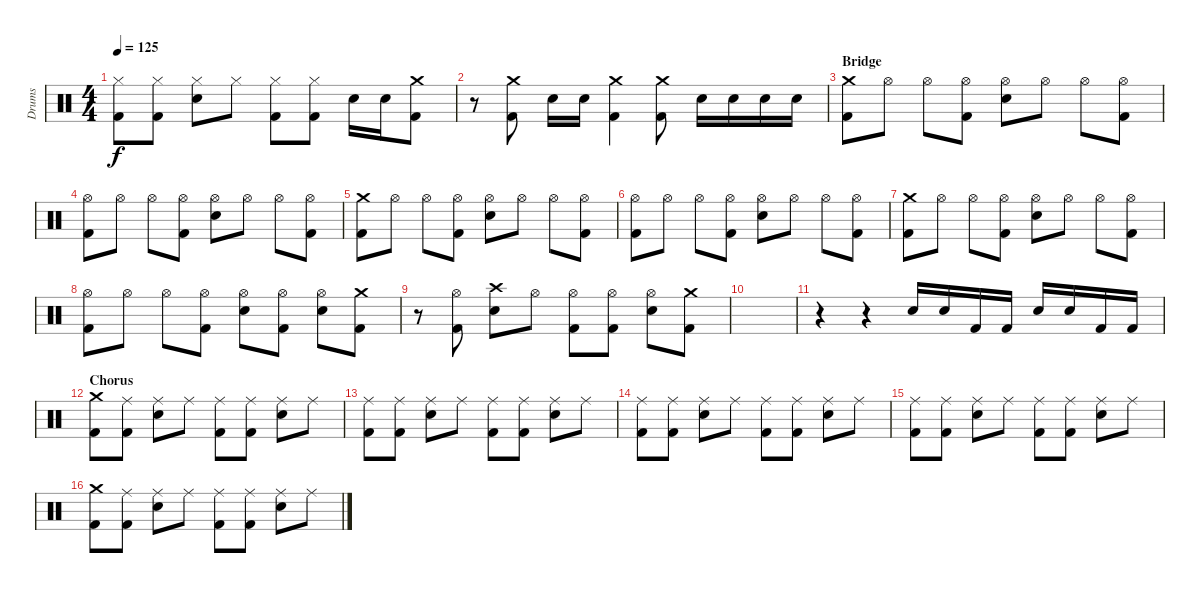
\track ("Drums" "Drums") {instrument percussion}
\staff {score}
\articulation defaults
\ts (4 4)
\tempo 125
\clef neutral
\ks c
("Hi-Hat (closed)" "Kick (hit) 2").8{dy f} ("Hi-Hat (closed)" "Kick (hit) 2").8 ("Hi-Hat (closed)" "Snare (hit) 2").8 "Hi-Hat (closed)".8 ("Hi-Hat (closed)" "Kick (hit) 2").8 ("Hi-Hat (closed)" "Kick (hit) 2").8 "Snare (hit) 2".16 "Snare (hit) 2".16 ("Crash medium (hit)" "Kick (hit) 2").8 |
r.8 ("Crash medium (hit)" "Kick (hit) 2").8 "Snare (hit) 2".16 "Snare (hit) 2".16 ("Crash medium (hit)" "Kick (hit) 2").4 ("Crash medium (hit)" "Kick (hit) 2").8 "Snare (hit) 2".16 "Snare (hit) 2".16 "Snare (hit) 2".16 "Snare (hit) 2".16 |
\section ("" "Bridge")
("Crash medium (hit)" "Kick (hit) 2").8 "Hi-Hat (open)".8 "Hi-Hat (open)".8 ("Hi-Hat (open)" "Kick (hit) 2").8 ("Hi-Hat (open)" "Snare (hit) 2").8 "Hi-Hat (open)".8 "Hi-Hat (open)".8 ("Hi-Hat (open)" "Kick (hit) 2").8 |
("Hi-Hat (open)" "Kick (hit) 2").8 "Hi-Hat (open)".8 "Hi-Hat (open)".8 ("Hi-Hat (open)" "Kick (hit) 2").8 ("Hi-Hat (open)" "Snare (hit) 2").8 "Hi-Hat (open)".8 "Hi-Hat (open)".8 ("Hi-Hat (open)" "Kick (hit) 2").8 |
("Crash medium (hit)" "Kick (hit) 2").8 "Hi-Hat (open)".8 "Hi-Hat (open)".8 ("Hi-Hat (open)" "Kick (hit) 2").8 ("Hi-Hat (open)" "Snare (hit) 2").8 "Hi-Hat (open)".8 "Hi-Hat (open)".8 ("Hi-Hat (open)" "Kick (hit) 2").8 |
("Hi-Hat (open)" "Kick (hit) 2").8 "Hi-Hat (open)".8 "Hi-Hat (open)".8 ("Hi-Hat (open)" "Kick (hit) 2").8 ("Hi-Hat (open)" "Snare (hit) 2").8 "Hi-Hat (open)".8 "Hi-Hat (open)".8 ("Hi-Hat (open)" "Kick (hit) 2").8 |
("Crash medium (hit)" "Kick (hit) 2").8 "Hi-Hat (open)".8 "Hi-Hat (open)".8 ("Hi-Hat (open)" "Kick (hit) 2").8 ("Hi-Hat (open)" "Snare (hit) 2").8 "Hi-Hat (open)".8 "Hi-Hat (open)".8 ("Hi-Hat (open)" "Kick (hit) 2").8 |
("Hi-Hat (open)" "Kick (hit) 2").8 "Hi-Hat (open)".8 "Hi-Hat (open)".8 ("Hi-Hat (open)" "Kick (hit) 2").8 ("Hi-Hat (open)" "Snare (hit) 2").8 ("Hi-Hat (open)" "Kick (hit) 2").8 ("Hi-Hat (open)" "Snare (hit) 2").8 ("Crash medium (hit)" "Kick (hit) 2").8 |
r.8 ("Hi-Hat (open)" "Kick (hit) 2").8 ("Crash high (hit)" "Snare (hit) 2").8 "Hi-Hat (open)".8 ("Hi-Hat (open)" "Kick (hit) 2").8 ("Hi-Hat (open)" "Kick (hit) 2").8 ("Hi-Hat (open)" "Snare (hit) 2").8 ("Crash medium (hit)" "Kick (hit) 2").8 |
|
r.4 r.4 "Snare (hit) 2".16 "Snare (hit) 2".16 "Kick (hit) 2".16 "Kick (hit) 2".16 "Snare (hit) 2".16 "Snare (hit) 2".16 "Kick (hit) 2".16 "Kick (hit) 2".16 |
\section ("" "Chorus")
("Crash medium (hit)" "Kick (hit) 2").8 ("Ride (middle)" "Kick (hit) 2").8 ("Ride (middle)" "Snare (hit) 2").8 "Ride (middle)".8 ("Ride (middle)" "Kick (hit) 2").8 ("Ride (middle)" "Kick (hit) 2").8 ("Ride (middle)" "Snare (hit) 2").8 "Ride (middle)".8 |
("Ride (middle)" "Kick (hit) 2").8 ("Ride (middle)" "Kick (hit) 2").8 ("Ride (middle)" "Snare (hit) 2").8 "Ride (middle)".8 ("Ride (middle)" "Kick (hit) 2").8 ("Ride (middle)" "Kick (hit) 2").8 ("Ride (middle)" "Snare (hit) 2").8 "Ride (middle)".8 |
("Ride (middle)" "Kick (hit) 2").8 ("Ride (middle)" "Kick (hit) 2").8 ("Ride (middle)" "Snare (hit) 2").8 "Ride (middle)".8 ("Ride (middle)" "Kick (hit) 2").8 ("Ride (middle)" "Kick (hit) 2").8 ("Ride (middle)" "Snare (hit) 2").8 "Ride (middle)".8 |
("Ride (middle)" "Kick (hit) 2").8 ("Ride (middle)" "Kick (hit) 2").8 ("Ride (middle)" "Snare (hit) 2").8 "Ride (middle)".8 ("Ride (middle)" "Kick (hit) 2").8 ("Ride (middle)" "Kick (hit) 2").8 ("Ride (middle)" "Snare (hit) 2").8 "Ride (middle)".8 |
("Crash medium (hit)" "Kick (hit) 2").8 ("Ride (middle)" "Kick (hit) 2").8 ("Ride (middle)" "Snare (hit) 2").8 "Ride (middle)".8 ("Ride (middle)" "Kick (hit) 2").8 ("Ride (middle)" "Kick (hit) 2").8 ("Ride (middle)" "Snare (hit) 2").8 "Ride (middle)".8
